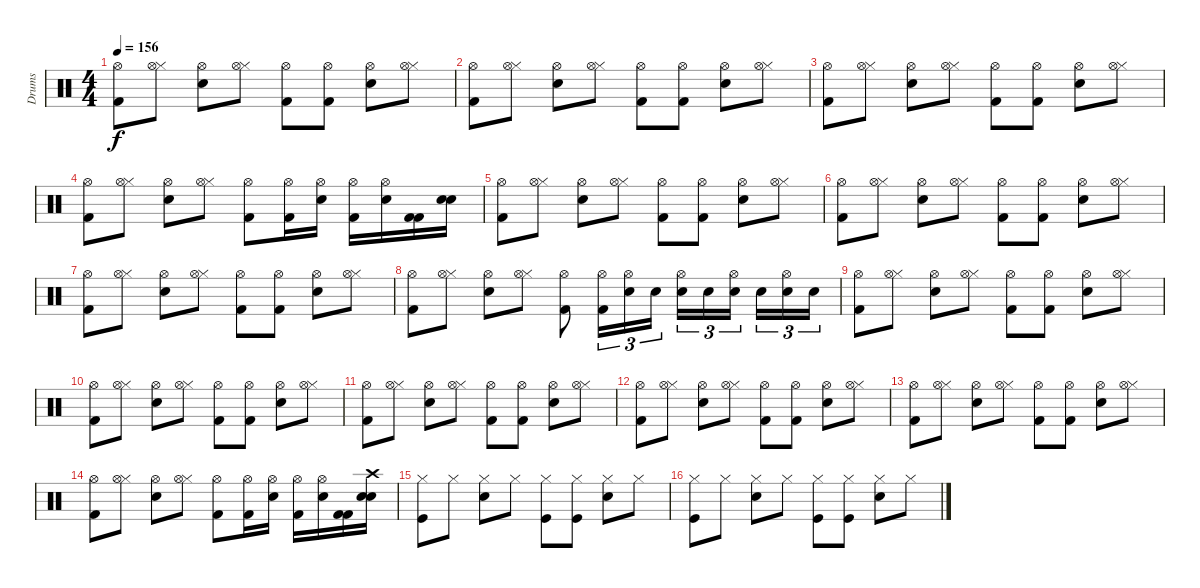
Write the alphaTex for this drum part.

\track ("Drums" "Drums") {instrument percussion}
\staff {score}
\articulation defaults
\ts (4 4)
\tempo 156
\clef neutral
\ks c
("Kick (hit) 2" "Hi-Hat (open)").8{dy f} ("Hi-Hat (closed)" "Hi-Hat (open)").8 ("Electric Snare (hit)" "Hi-Hat (open)").8 ("Hi-Hat (closed)" "Hi-Hat (open)").8 ("Kick (hit) 2" "Hi-Hat (open)").8 ("Kick (hit) 2" "Hi-Hat (open)").8 ("Electric Snare (hit)" "Hi-Hat (open)").8 ("Hi-Hat (closed)" "Hi-Hat (open)").8 |
("Kick (hit) 2" "Hi-Hat (open)").8 ("Hi-Hat (closed)" "Hi-Hat (open)").8 ("Electric Snare (hit)" "Hi-Hat (open)").8 ("Hi-Hat (closed)" "Hi-Hat (open)").8 ("Kick (hit) 2" "Hi-Hat (open)").8 ("Kick (hit) 2" "Hi-Hat (open)").8 ("Electric Snare (hit)" "Hi-Hat (open)").8 ("Hi-Hat (closed)" "Hi-Hat (open)").8 |
("Kick (hit) 2" "Hi-Hat (open)").8 ("Hi-Hat (closed)" "Hi-Hat (open)").8 ("Electric Snare (hit)" "Hi-Hat (open)").8 ("Hi-Hat (closed)" "Hi-Hat (open)").8 ("Kick (hit) 2" "Hi-Hat (open)").8 ("Kick (hit) 2" "Hi-Hat (open)").8 ("Electric Snare (hit)" "Hi-Hat (open)").8 ("Hi-Hat (closed)" "Hi-Hat (open)").8 |
("Kick (hit) 2" "Hi-Hat (open)").8 ("Hi-Hat (closed)" "Hi-Hat (open)").8 ("Electric Snare (hit)" "Hi-Hat (open)").8 ("Hi-Hat (closed)" "Hi-Hat (open)").8 ("Kick (hit) 2" "Hi-Hat (open)").8 ("Kick (hit) 2" "Hi-Hat (open)").16 ("Electric Snare (hit)" "Hi-Hat (open)").16 ("Kick (hit) 2" "Hi-Hat (open)").16 ("Electric Snare (hit)" "Hi-Hat (open)").16 ("Kick (hit) 2" "Kick (hit) 2").16 ("Electric Snare (hit)" "Electric Snare (hit)").16 |
("Kick (hit) 2" "Hi-Hat (open)").8 ("Hi-Hat (closed)" "Hi-Hat (open)").8 ("Electric Snare (hit)" "Hi-Hat (open)").8 ("Hi-Hat (closed)" "Hi-Hat (open)").8 ("Kick (hit) 2" "Hi-Hat (open)").8 ("Kick (hit) 2" "Hi-Hat (open)").8 ("Electric Snare (hit)" "Hi-Hat (open)").8 ("Hi-Hat (closed)" "Hi-Hat (open)").8 |
("Kick (hit) 2" "Hi-Hat (open)").8 ("Hi-Hat (closed)" "Hi-Hat (open)").8 ("Electric Snare (hit)" "Hi-Hat (open)").8 ("Hi-Hat (closed)" "Hi-Hat (open)").8 ("Kick (hit) 2" "Hi-Hat (open)").8 ("Kick (hit) 2" "Hi-Hat (open)").8 ("Electric Snare (hit)" "Hi-Hat (open)").8 ("Hi-Hat (closed)" "Hi-Hat (open)").8 |
("Kick (hit) 2" "Hi-Hat (open)").8 ("Hi-Hat (closed)" "Hi-Hat (open)").8 ("Electric Snare (hit)" "Hi-Hat (open)").8 ("Hi-Hat (closed)" "Hi-Hat (open)").8 ("Kick (hit) 2" "Hi-Hat (open)").8 ("Kick (hit) 2" "Hi-Hat (open)").8 ("Electric Snare (hit)" "Hi-Hat (open)").8 ("Hi-Hat (closed)" "Hi-Hat (open)").8 |
("Kick (hit) 2" "Hi-Hat (open)").8 ("Hi-Hat (closed)" "Hi-Hat (open)").8 ("Electric Snare (hit)" "Hi-Hat (open)").8 ("Hi-Hat (closed)" "Hi-Hat (open)").8 ("Kick (hit) 2" "Hi-Hat (open)").8 ("Kick (hit) 2" "Hi-Hat (open)").16{tu (3 2)} ("Electric Snare (hit)" "Hi-Hat (open)").16{tu (3 2)} "Electric Snare (hit)".16{tu (3 2)} ("Electric Snare (hit)" "Hi-Hat (open)").16{tu (3 2)} "Electric Snare (hit)".16{tu (3 2)} ("Electric Snare (hit)" "Hi-Hat (open)").16{tu (3 2)} "Electric Snare (hit)".16{tu (3 2)} ("Electric Snare (hit)" "Hi-Hat (open)").16{tu (3 2)} "Electric Snare (hit)".16{tu (3 2)} |
("Kick (hit) 2" "Hi-Hat (open)").8 ("Hi-Hat (closed)" "Hi-Hat (open)").8 ("Electric Snare (hit)" "Hi-Hat (open)").8 ("Hi-Hat (closed)" "Hi-Hat (open)").8 ("Kick (hit) 2" "Hi-Hat (open)").8 ("Kick (hit) 2" "Hi-Hat (open)").8 ("Electric Snare (hit)" "Hi-Hat (open)").8 ("Hi-Hat (closed)" "Hi-Hat (open)").8 |
("Kick (hit) 2" "Hi-Hat (open)").8 ("Hi-Hat (closed)" "Hi-Hat (open)").8 ("Electric Snare (hit)" "Hi-Hat (open)").8 ("Hi-Hat (closed)" "Hi-Hat (open)").8 ("Kick (hit) 2" "Hi-Hat (open)").8 ("Kick (hit) 2" "Hi-Hat (open)").8 ("Electric Snare (hit)" "Hi-Hat (open)").8 ("Hi-Hat (closed)" "Hi-Hat (open)").8 |
("Kick (hit) 2" "Hi-Hat (open)").8 ("Hi-Hat (closed)" "Hi-Hat (open)").8 ("Electric Snare (hit)" "Hi-Hat (open)").8 ("Hi-Hat (closed)" "Hi-Hat (open)").8 ("Kick (hit) 2" "Hi-Hat (open)").8 ("Kick (hit) 2" "Hi-Hat (open)").8 ("Electric Snare (hit)" "Hi-Hat (open)").8 ("Hi-Hat (closed)" "Hi-Hat (open)").8 |
("Kick (hit) 2" "Hi-Hat (open)").8 ("Hi-Hat (closed)" "Hi-Hat (open)").8 ("Electric Snare (hit)" "Hi-Hat (open)").8 ("Hi-Hat (closed)" "Hi-Hat (open)").8 ("Kick (hit) 2" "Hi-Hat (open)").8 ("Kick (hit) 2" "Hi-Hat (open)").8 ("Electric Snare (hit)" "Hi-Hat (open)").8 ("Hi-Hat (closed)" "Hi-Hat (open)").8 |
("Kick (hit) 2" "Hi-Hat (open)").8 ("Hi-Hat (closed)" "Hi-Hat (open)").8 ("Electric Snare (hit)" "Hi-Hat (open)").8 ("Hi-Hat (closed)" "Hi-Hat (open)").8 ("Kick (hit) 2" "Hi-Hat (open)").8 ("Kick (hit) 2" "Hi-Hat (open)").8 ("Electric Snare (hit)" "Hi-Hat (open)").8 ("Hi-Hat (closed)" "Hi-Hat (open)").8 |
("Kick (hit) 2" "Hi-Hat (open)").8 ("Hi-Hat (closed)" "Hi-Hat (open)").8 ("Electric Snare (hit)" "Hi-Hat (open)").8 ("Hi-Hat (closed)" "Hi-Hat (open)").8 ("Kick (hit) 2" "Hi-Hat (open)").8 ("Kick (hit) 2" "Hi-Hat (open)").16 ("Electric Snare (hit)" "Hi-Hat (open)").16 ("Kick (hit) 2" "Hi-Hat (open)").16 ("Electric Snare (hit)" "Hi-Hat (open)").16 ("Kick (hit) 2" "Kick (hit) 2").16 ("Electric Snare (hit)" "Electric Snare (hit)" "Crash high (hit)").16 |
("Kick (hit)" "Hi-Hat (closed)").8 "Hi-Hat (closed)".8 ("Snare (hit) 2" "Hi-Hat (closed)").8 "Hi-Hat (closed)".8 ("Kick (hit)" "Hi-Hat (closed)").8 ("Kick (hit)" "Hi-Hat (closed)").8 ("Snare (hit) 2" "Hi-Hat (closed)").8 "Hi-Hat (closed)".8 |
("Kick (hit)" "Hi-Hat (closed)").8 "Hi-Hat (closed)".8 ("Snare (hit) 2" "Hi-Hat (closed)").8 "Hi-Hat (closed)".8 ("Kick (hit)" "Hi-Hat (closed)").8 ("Kick (hit)" "Hi-Hat (closed)").8 ("Snare (hit) 2" "Hi-Hat (closed)").8 "Hi-Hat (closed)".8
